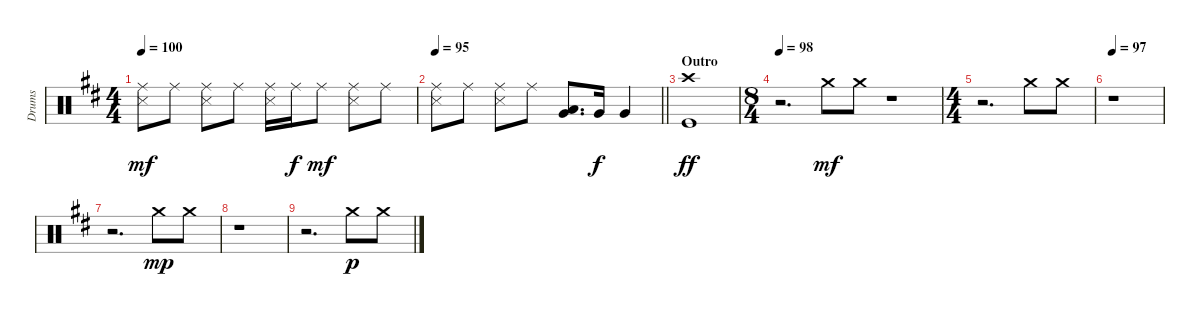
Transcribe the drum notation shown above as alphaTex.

\track ("Drums" "Drums") {instrument percussion}
\staff {score}
\articulation defaults
\ts (4 4)
\tempo 100
\clef neutral
\ks d
("Ride (middle)" "Snare (side stick) 3").8{dy mf} "Ride (middle)".8 ("Ride (middle)" "Snare (side stick) 3").8 "Ride (middle)".8 ("Ride (middle)" "Snare (side stick) 3").16 "Ride (middle)".16{dy f} "Ride (middle)".8{dy mf} ("Ride (middle)" "Snare (side stick) 3").8 "Ride (middle)".8 |
\tempo 95
\barLineRight lightlight
("Ride (middle)" "Snare (side stick) 3").8 "Ride (middle)".8 ("Ride (middle)" "Snare (side stick) 3").8 "Ride (middle)".8 ("Low Tom (hit)" "Very Low Tom (hit)").8{d} "Very Low Tom (hit)".16{dy f} "Very Low Tom (hit)".4 |
\section ("" "Outro")
("Crash high (hit)" "Kick (hit)").1{dy ff} |
\ts (8 4)
\tempo 98
r.2{d volume 13} "Crash medium (hit)".8{dy mf} "Crash medium (hit)".8 r.1 |
\ts (4 4)
r.2{d} "Crash medium (hit)".8 "Crash medium (hit)".8 |
\tempo 97
r.1 |
r.2{d} "Crash medium (hit)".8{dy mp} "Crash medium (hit)".8 |
r.1 |
r.2{d} "Crash medium (hit)".8{dy p} "Crash medium (hit)".8
